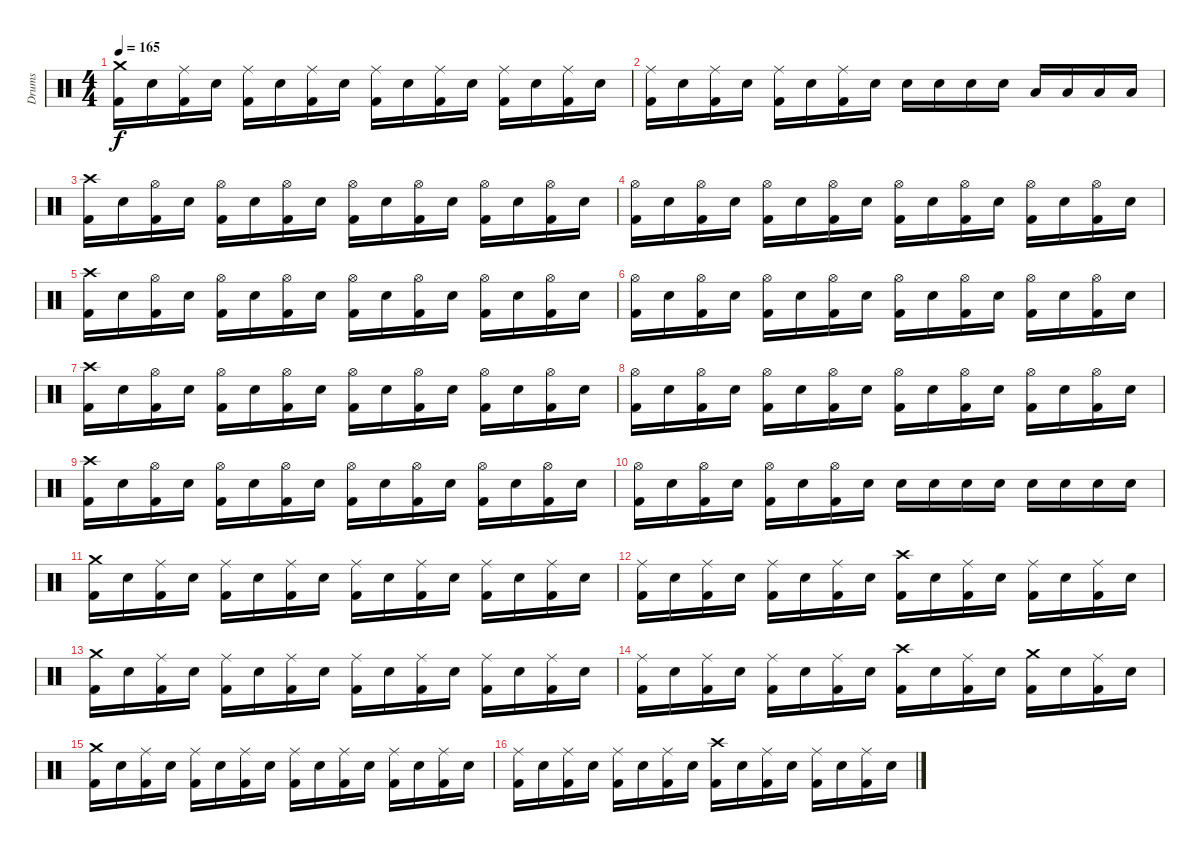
\track ("Drums" "Drums") {instrument percussion}
\staff {score}
\articulation defaults
\ts (4 4)
\tempo 165
\clef neutral
\ks c
("Crash medium (hit)" "Kick (hit) 2").16{dy f} "Electric Snare (hit)".16 ("Ride (middle)" "Kick (hit) 2").16 "Electric Snare (hit)".16 ("Ride (middle)" "Kick (hit) 2").16 "Electric Snare (hit)".16 ("Ride (middle)" "Kick (hit) 2").16 "Electric Snare (hit)".16 ("Ride (middle)" "Kick (hit) 2").16 "Electric Snare (hit)".16 ("Ride (middle)" "Kick (hit) 2").16 "Electric Snare (hit)".16 ("Ride (middle)" "Kick (hit) 2").16 "Electric Snare (hit)".16 ("Ride (middle)" "Kick (hit) 2").16 "Electric Snare (hit)".16 |
("Ride (middle)" "Kick (hit) 2").16 "Electric Snare (hit)".16 ("Ride (middle)" "Kick (hit) 2").16 "Electric Snare (hit)".16 ("Ride (middle)" "Kick (hit) 2").16 "Electric Snare (hit)".16 ("Ride (middle)" "Kick (hit) 2").16 "Electric Snare (hit)".16 "Electric Snare (hit)".16 "Electric Snare (hit)".16 "Electric Snare (hit)".16 "Electric Snare (hit)".16 "Low Tom (hit)".16 "Low Tom (hit)".16 "Low Tom (hit)".16 "Low Tom (hit)".16 |
("Crash high (hit)" "Kick (hit) 2").16 "Electric Snare (hit)".16 ("Hi-Hat (open)" "Kick (hit) 2").16 "Electric Snare (hit)".16 ("Hi-Hat (open)" "Kick (hit) 2").16 "Electric Snare (hit)".16 ("Hi-Hat (open)" "Kick (hit) 2").16 "Electric Snare (hit)".16 ("Hi-Hat (open)" "Kick (hit) 2").16 "Electric Snare (hit)".16 ("Hi-Hat (open)" "Kick (hit) 2").16 "Electric Snare (hit)".16 ("Hi-Hat (open)" "Kick (hit) 2").16 "Electric Snare (hit)".16 ("Hi-Hat (open)" "Kick (hit) 2").16 "Electric Snare (hit)".16 |
("Hi-Hat (open)" "Kick (hit) 2").16 "Electric Snare (hit)".16 ("Hi-Hat (open)" "Kick (hit) 2").16 "Electric Snare (hit)".16 ("Hi-Hat (open)" "Kick (hit) 2").16 "Electric Snare (hit)".16 ("Hi-Hat (open)" "Kick (hit) 2").16 "Electric Snare (hit)".16 ("Hi-Hat (open)" "Kick (hit) 2").16 "Electric Snare (hit)".16 ("Hi-Hat (open)" "Kick (hit) 2").16 "Electric Snare (hit)".16 ("Hi-Hat (open)" "Kick (hit) 2").16 "Electric Snare (hit)".16 ("Hi-Hat (open)" "Kick (hit) 2").16 "Electric Snare (hit)".16 |
("Crash high (hit)" "Kick (hit) 2").16 "Electric Snare (hit)".16 ("Hi-Hat (open)" "Kick (hit) 2").16 "Electric Snare (hit)".16 ("Hi-Hat (open)" "Kick (hit) 2").16 "Electric Snare (hit)".16 ("Hi-Hat (open)" "Kick (hit) 2").16 "Electric Snare (hit)".16 ("Hi-Hat (open)" "Kick (hit) 2").16 "Electric Snare (hit)".16 ("Hi-Hat (open)" "Kick (hit) 2").16 "Electric Snare (hit)".16 ("Hi-Hat (open)" "Kick (hit) 2").16 "Electric Snare (hit)".16 ("Hi-Hat (open)" "Kick (hit) 2").16 "Electric Snare (hit)".16 |
("Hi-Hat (open)" "Kick (hit) 2").16 "Electric Snare (hit)".16 ("Hi-Hat (open)" "Kick (hit) 2").16 "Electric Snare (hit)".16 ("Hi-Hat (open)" "Kick (hit) 2").16 "Electric Snare (hit)".16 ("Hi-Hat (open)" "Kick (hit) 2").16 "Electric Snare (hit)".16 ("Hi-Hat (open)" "Kick (hit) 2").16 "Electric Snare (hit)".16 ("Hi-Hat (open)" "Kick (hit) 2").16 "Electric Snare (hit)".16 ("Hi-Hat (open)" "Kick (hit) 2").16 "Electric Snare (hit)".16 ("Hi-Hat (open)" "Kick (hit) 2").16 "Electric Snare (hit)".16 |
("Crash high (hit)" "Kick (hit) 2").16 "Electric Snare (hit)".16 ("Hi-Hat (open)" "Kick (hit) 2").16 "Electric Snare (hit)".16 ("Hi-Hat (open)" "Kick (hit) 2").16 "Electric Snare (hit)".16 ("Hi-Hat (open)" "Kick (hit) 2").16 "Electric Snare (hit)".16 ("Hi-Hat (open)" "Kick (hit) 2").16 "Electric Snare (hit)".16 ("Hi-Hat (open)" "Kick (hit) 2").16 "Electric Snare (hit)".16 ("Hi-Hat (open)" "Kick (hit) 2").16 "Electric Snare (hit)".16 ("Hi-Hat (open)" "Kick (hit) 2").16 "Electric Snare (hit)".16 |
("Hi-Hat (open)" "Kick (hit) 2").16 "Electric Snare (hit)".16 ("Hi-Hat (open)" "Kick (hit) 2").16 "Electric Snare (hit)".16 ("Hi-Hat (open)" "Kick (hit) 2").16 "Electric Snare (hit)".16 ("Hi-Hat (open)" "Kick (hit) 2").16 "Electric Snare (hit)".16 ("Hi-Hat (open)" "Kick (hit) 2").16 "Electric Snare (hit)".16 ("Hi-Hat (open)" "Kick (hit) 2").16 "Electric Snare (hit)".16 ("Hi-Hat (open)" "Kick (hit) 2").16 "Electric Snare (hit)".16 ("Hi-Hat (open)" "Kick (hit) 2").16 "Electric Snare (hit)".16 |
("Crash high (hit)" "Kick (hit) 2").16 "Electric Snare (hit)".16 ("Hi-Hat (open)" "Kick (hit) 2").16 "Electric Snare (hit)".16 ("Hi-Hat (open)" "Kick (hit) 2").16 "Electric Snare (hit)".16 ("Hi-Hat (open)" "Kick (hit) 2").16 "Electric Snare (hit)".16 ("Hi-Hat (open)" "Kick (hit) 2").16 "Electric Snare (hit)".16 ("Hi-Hat (open)" "Kick (hit) 2").16 "Electric Snare (hit)".16 ("Hi-Hat (open)" "Kick (hit) 2").16 "Electric Snare (hit)".16 ("Hi-Hat (open)" "Kick (hit) 2").16 "Electric Snare (hit)".16 |
("Hi-Hat (open)" "Kick (hit) 2").16 "Electric Snare (hit)".16 ("Hi-Hat (open)" "Kick (hit) 2").16 "Electric Snare (hit)".16 ("Hi-Hat (open)" "Kick (hit) 2").16 "Electric Snare (hit)".16 ("Hi-Hat (open)" "Kick (hit) 2").16 "Electric Snare (hit)".16 "Electric Snare (hit)".16 "Electric Snare (hit)".16 "Electric Snare (hit)".16 "Electric Snare (hit)".16 "Electric Snare (hit)".16 "Electric Snare (hit)".16 "Electric Snare (hit)".16 "Electric Snare (hit)".16 |
("Crash medium (hit)" "Kick (hit) 2").16 "Electric Snare (hit)".16 ("Ride (middle)" "Kick (hit) 2").16 "Electric Snare (hit)".16 ("Ride (middle)" "Kick (hit) 2").16 "Electric Snare (hit)".16 ("Ride (middle)" "Kick (hit) 2").16 "Electric Snare (hit)".16 ("Ride (middle)" "Kick (hit) 2").16 "Electric Snare (hit)".16 ("Ride (middle)" "Kick (hit) 2").16 "Electric Snare (hit)".16 ("Ride (middle)" "Kick (hit) 2").16 "Electric Snare (hit)".16 ("Ride (middle)" "Kick (hit) 2").16 "Electric Snare (hit)".16 |
("Ride (middle)" "Kick (hit) 2").16 "Electric Snare (hit)".16 ("Ride (middle)" "Kick (hit) 2").16 "Electric Snare (hit)".16 ("Ride (middle)" "Kick (hit) 2").16 "Electric Snare (hit)".16 ("Ride (middle)" "Kick (hit) 2").16 "Electric Snare (hit)".16 ("Crash high (hit)" "Kick (hit) 2").16 "Electric Snare (hit)".16 ("Ride (middle)" "Kick (hit) 2").16 "Electric Snare (hit)".16 ("Ride (middle)" "Kick (hit) 2").16 "Electric Snare (hit)".16 ("Ride (middle)" "Kick (hit) 2").16 "Electric Snare (hit)".16 |
("Crash medium (hit)" "Kick (hit) 2").16 "Electric Snare (hit)".16 ("Ride (middle)" "Kick (hit) 2").16 "Electric Snare (hit)".16 ("Ride (middle)" "Kick (hit) 2").16 "Electric Snare (hit)".16 ("Ride (middle)" "Kick (hit) 2").16 "Electric Snare (hit)".16 ("Ride (middle)" "Kick (hit) 2").16 "Electric Snare (hit)".16 ("Ride (middle)" "Kick (hit) 2").16 "Electric Snare (hit)".16 ("Ride (middle)" "Kick (hit) 2").16 "Electric Snare (hit)".16 ("Ride (middle)" "Kick (hit) 2").16 "Electric Snare (hit)".16 |
("Ride (middle)" "Kick (hit) 2").16 "Electric Snare (hit)".16 ("Ride (middle)" "Kick (hit) 2").16 "Electric Snare (hit)".16 ("Ride (middle)" "Kick (hit) 2").16 "Electric Snare (hit)".16 ("Ride (middle)" "Kick (hit) 2").16 "Electric Snare (hit)".16 ("Crash high (hit)" "Kick (hit) 2").16 "Electric Snare (hit)".16 ("Ride (middle)" "Kick (hit) 2").16 "Electric Snare (hit)".16 ("Crash medium (hit)" "Kick (hit) 2").16 "Electric Snare (hit)".16 ("Ride (middle)" "Kick (hit) 2").16 "Electric Snare (hit)".16 |
("Crash medium (hit)" "Kick (hit) 2").16 "Electric Snare (hit)".16 ("Ride (middle)" "Kick (hit) 2").16 "Electric Snare (hit)".16 ("Ride (middle)" "Kick (hit) 2").16 "Electric Snare (hit)".16 ("Ride (middle)" "Kick (hit) 2").16 "Electric Snare (hit)".16 ("Ride (middle)" "Kick (hit) 2").16 "Electric Snare (hit)".16 ("Ride (middle)" "Kick (hit) 2").16 "Electric Snare (hit)".16 ("Ride (middle)" "Kick (hit) 2").16 "Electric Snare (hit)".16 ("Ride (middle)" "Kick (hit) 2").16 "Electric Snare (hit)".16 |
("Ride (middle)" "Kick (hit) 2").16 "Electric Snare (hit)".16 ("Ride (middle)" "Kick (hit) 2").16 "Electric Snare (hit)".16 ("Ride (middle)" "Kick (hit) 2").16 "Electric Snare (hit)".16 ("Ride (middle)" "Kick (hit) 2").16 "Electric Snare (hit)".16 ("Crash high (hit)" "Kick (hit) 2").16 "Electric Snare (hit)".16 ("Ride (middle)" "Kick (hit) 2").16 "Electric Snare (hit)".16 ("Ride (middle)" "Kick (hit) 2").16 "Electric Snare (hit)".16 ("Ride (middle)" "Kick (hit) 2").16 "Electric Snare (hit)".16
